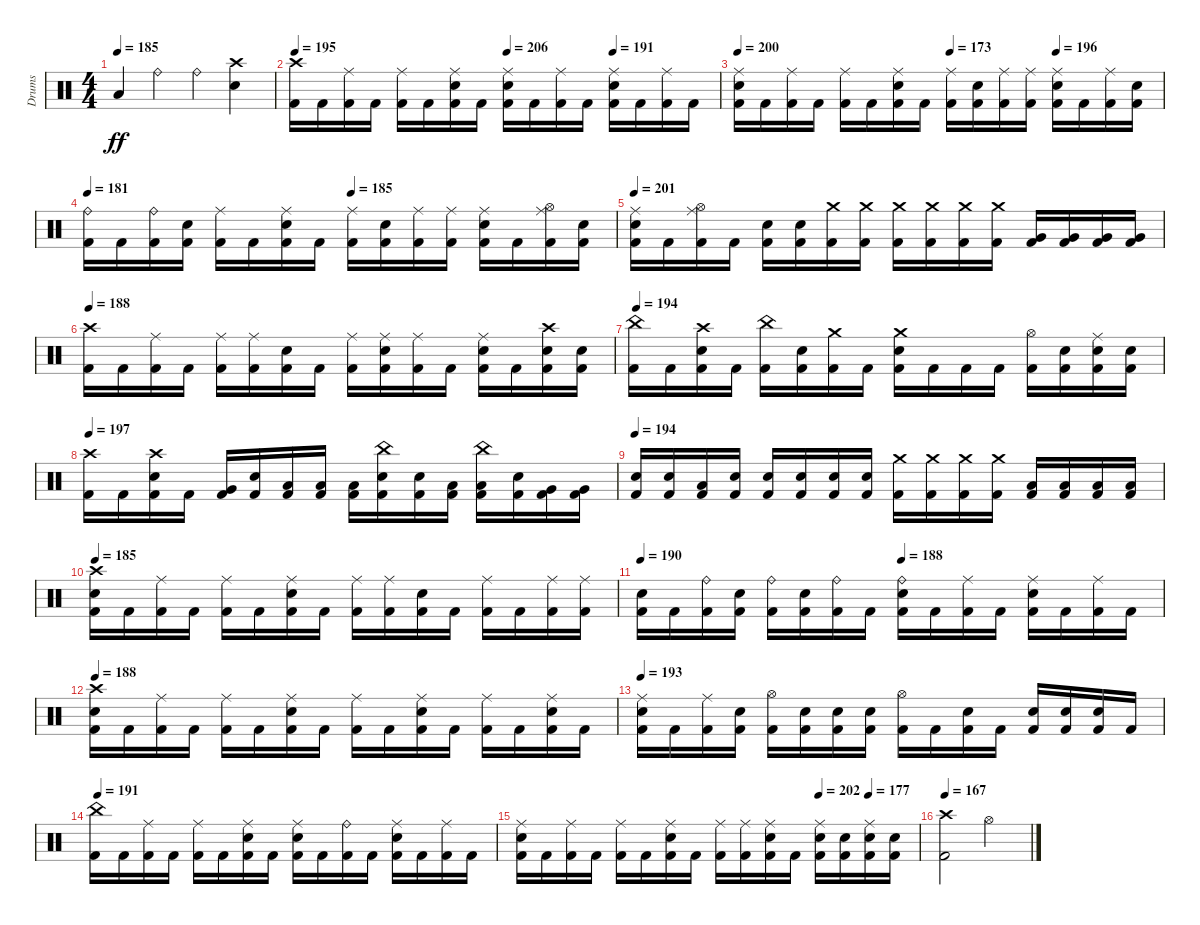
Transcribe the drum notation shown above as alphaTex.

\track ("Drums" "Drums") {instrument percussion}
\staff {score}
\articulation defaults
\ts (4 4)
\tempo 185
\clef neutral
\ks c "Low Floor Tom (hit)".4{dy ff} "Ride (bell)".4 "Ride (bell)".4
("Snare (hit) 2" "Crash high (hit)").4 |
\tempo 195
\tempo (206 0.5)
\tempo (191 0.75)
("Kick (hit) 2" "Crash high (hit)").16 "Kick (hit) 2".16 ("Kick (hit) 2" "Ride (middle)").16 "Kick (hit) 2".16 ("Kick (hit) 2" "Ride (middle)").16 "Kick (hit) 2".16 ("Kick (hit) 2" "Snare (hit) 2" "Ride (middle)").16 "Kick (hit) 2".16 ("Kick (hit) 2" "Snare (hit) 2" "Ride (middle)").16 "Kick (hit) 2".16 ("Kick (hit) 2" "Ride (middle)").16 "Kick (hit) 2".16 ("Kick (hit) 2" "Snare (hit) 2" "Ride (middle)").16 "Kick (hit) 2".16 ("Kick (hit) 2" "Ride (middle)").16 "Kick (hit) 2".16 |
\tempo 200
\tempo (173 0.5)
\tempo (196 0.75)
("Kick (hit) 2" "Snare (hit) 2" "Ride (middle)").16 "Kick (hit) 2".16 ("Kick (hit) 2" "Ride (middle)").16 "Kick (hit) 2".16 ("Kick (hit) 2" "Ride (middle)").16 "Kick (hit) 2".16 ("Kick (hit) 2" "Snare (hit) 2" "Ride (middle)").16 "Kick (hit) 2".16 ("Kick (hit) 2" "Ride (middle)").16 ("Kick (hit) 2" "Snare (hit) 2").16 ("Kick (hit) 2" "Ride (middle)").16 ("Kick (hit) 2" "Ride (middle)").16 ("Kick (hit) 2" "Snare (hit) 2" "Ride (middle)").16 "Kick (hit) 2".16 ("Kick (hit) 2" "Ride (middle)").16 ("Kick (hit) 2" "Snare (hit) 2").16 |
\tempo 181
\tempo (185 0.5)
("Kick (hit) 2" "Ride (bell)").16 "Kick (hit) 2".16 ("Kick (hit) 2" "Ride (bell)").16 ("Kick (hit) 2" "Snare (hit) 2").16 ("Kick (hit) 2" "Ride (middle)").16 "Kick (hit) 2".16 ("Kick (hit) 2" "Snare (hit) 2" "Ride (middle)").16 "Kick (hit) 2".16 ("Kick (hit) 2" "Ride (middle)").16 ("Kick (hit) 2" "Snare (hit) 2").16 ("Kick (hit) 2" "Ride (middle)").16 ("Kick (hit) 2" "Ride (middle)").16 ("Kick (hit) 2" "Snare (hit) 2" "Ride (middle)").16 "Kick (hit) 2".16 ("Kick (hit) 2" "Hi-Hat (open)" "Ride (middle)").16 ("Kick (hit) 2" "Snare (hit) 2").16 |
\tempo 201
("Kick (hit) 2" "Snare (hit) 2" "Ride (middle)").16 "Kick (hit) 2".16 ("Kick (hit) 2" "Hi-Hat (open)" "Ride (middle)").16 "Kick (hit) 2".16 ("Kick (hit) 2" "Snare (hit) 2").16 ("Kick (hit) 2" "Snare (hit) 2").16 ("Kick (hit) 2" "Crash medium (hit)").16 ("Kick (hit) 2" "Crash medium (hit)").16 ("Kick (hit) 2" "Crash medium (hit)").16 ("Kick (hit) 2" "Crash medium (hit)").16 ("Kick (hit) 2" "Crash medium (hit)").16 ("Kick (hit) 2" "Crash medium (hit)").16 ("Kick (hit) 2" "Very Low Tom (hit)").16 ("Kick (hit) 2" "Very Low Tom (hit)").16 ("Kick (hit) 2" "Very Low Tom (hit)").16 ("Kick (hit) 2" "Very Low Tom (hit)").16 |
\tempo 188
("Kick (hit) 2" "Crash high (hit)").16 "Kick (hit) 2".16 ("Kick (hit) 2" "Ride (middle)").16 "Kick (hit) 2".16 ("Kick (hit) 2" "Ride (middle)").16 ("Kick (hit) 2" "Ride (middle)").16 ("Kick (hit) 2" "Snare (hit) 2").16 "Kick (hit) 2".16 ("Kick (hit) 2" "Ride (middle)").16 ("Kick (hit) 2" "Snare (hit) 2" "Ride (middle)").16 ("Kick (hit) 2" "Ride (middle)").16 "Kick (hit) 2".16 ("Kick (hit) 2" "Snare (hit) 2" "Ride (middle)").16 "Kick (hit) 2".16 ("Kick (hit) 2" "Snare (hit) 2" "Crash high (hit)").16 ("Kick (hit) 2" "Snare (hit) 2").16 |
\tempo 194
("Kick (hit) 2" "China (hit)").16 "Kick (hit) 2".16 ("Kick (hit) 2" "Snare (hit) 2" "Crash high (hit)").16 "Kick (hit) 2".16 ("Kick (hit) 2" "China (hit)").16 ("Kick (hit) 2" "Snare (hit) 2").16 ("Kick (hit) 2" "Crash medium (hit)").16 "Kick (hit) 2".16 ("Kick (hit) 2" "Snare (hit) 2" "Crash medium (hit)").16 "Kick (hit) 2".16 "Kick (hit) 2".16 "Kick (hit) 2".16 ("Kick (hit) 2" "Hi-Hat (open)").16 ("Kick (hit) 2" "Snare (hit) 2").16 ("Kick (hit) 2" "Snare (hit) 2" "Ride (middle)").16 ("Kick (hit) 2" "Snare (hit) 2").16 |
\tempo 197
("Kick (hit) 2" "Crash high (hit)").16 "Kick (hit) 2".16 ("Kick (hit) 2" "Snare (hit) 2" "Crash high (hit)").16 "Kick (hit) 2".16 ("Kick (hit) 2" "Very Low Tom (hit)").16 ("Kick (hit) 2" "Snare (hit) 2").16 ("Kick (hit) 2" "Low Floor Tom (hit)").16 ("Kick (hit) 2" "Low Floor Tom (hit)").16 ("Kick (hit) 2" "Low Floor Tom (hit)").16 ("Kick (hit) 2" "Snare (hit) 2" "China (hit)").16 ("Kick (hit) 2" "Snare (hit) 2").16 ("Kick (hit) 2" "Low Floor Tom (hit)").16 ("Kick (hit) 2" "Low Floor Tom (hit)" "China (hit)").16 ("Kick (hit) 2" "Snare (hit) 2").16 ("Kick (hit) 2" "Very Low Tom (hit)").16 ("Kick (hit) 2" "Very Low Tom (hit)").16 |
\tempo 194
("Kick (hit) 2" "Snare (hit) 2").16 ("Kick (hit) 2" "Snare (hit) 2").16 ("Kick (hit) 2" "Low Floor Tom (hit)").16 ("Kick (hit) 2" "Snare (hit) 2").16 ("Kick (hit) 2" "Snare (hit) 2").16 ("Kick (hit) 2" "Snare (hit) 2").16 ("Kick (hit) 2" "Snare (hit) 2").16 ("Kick (hit) 2" "Snare (hit) 2").16 ("Kick (hit) 2" "Crash medium (hit)").16 ("Kick (hit) 2" "Crash medium (hit)").16 ("Kick (hit) 2" "Crash medium (hit)").16 ("Kick (hit) 2" "Crash medium (hit)").16 ("Kick (hit) 2" "Low Floor Tom (hit)").16 ("Kick (hit) 2" "Low Floor Tom (hit)").16 ("Kick (hit) 2" "Low Floor Tom (hit)").16 ("Kick (hit) 2" "Low Floor Tom (hit)").16 |
\tempo 185
("Kick (hit) 2" "Snare (hit) 2" "Crash high (hit)").16 "Kick (hit) 2".16 ("Kick (hit) 2" "Ride (middle)").16 "Kick (hit) 2".16 ("Kick (hit) 2" "Ride (middle)").16 "Kick (hit) 2".16 ("Kick (hit) 2" "Snare (hit) 2" "Ride (middle)").16 "Kick (hit) 2".16 ("Kick (hit) 2" "Ride (middle)").16 ("Kick (hit) 2" "Ride (middle)").16 ("Kick (hit) 2" "Snare (hit) 2").16 "Kick (hit) 2".16 ("Kick (hit) 2" "Ride (middle)").16 "Kick (hit) 2".16 ("Kick (hit) 2" "Ride (middle)").16 ("Kick (hit) 2" "Ride (middle)").16 |
\tempo 190
\tempo (188 0.5)
("Kick (hit) 2" "Snare (hit) 2").16 "Kick (hit) 2".16 ("Kick (hit) 2" "Ride (bell)").16 ("Kick (hit) 2" "Snare (hit) 2").16 ("Kick (hit) 2" "Ride (bell)").16 ("Kick (hit) 2" "Snare (hit) 2").16 ("Kick (hit) 2" "Ride (bell)").16 "Kick (hit) 2".16 ("Kick (hit) 2" "Snare (hit) 2" "Ride (bell)").16 "Kick (hit) 2".16 ("Kick (hit) 2" "Ride (middle)").16 "Kick (hit) 2".16 ("Kick (hit) 2" "Snare (hit) 2" "Ride (middle)").16 "Kick (hit) 2".16 ("Kick (hit) 2" "Ride (middle)").16 "Kick (hit) 2".16 |
\tempo 188
("Kick (hit) 2" "Snare (hit) 2" "Crash high (hit)").16 "Kick (hit) 2".16 ("Kick (hit) 2" "Ride (middle)").16 "Kick (hit) 2".16 ("Kick (hit) 2" "Ride (middle)").16 "Kick (hit) 2".16 ("Kick (hit) 2" "Snare (hit) 2" "Ride (middle)").16 "Kick (hit) 2".16 ("Kick (hit) 2" "Ride (middle)").16 "Kick (hit) 2".16 ("Kick (hit) 2" "Snare (hit) 2" "Ride (middle)").16 "Kick (hit) 2".16 ("Kick (hit) 2" "Ride (middle)").16 "Kick (hit) 2".16 ("Kick (hit) 2" "Snare (hit) 2" "Ride (middle)").16 "Kick (hit) 2".16 |
\tempo 193
("Kick (hit) 2" "Snare (hit) 2" "Ride (middle)").16 "Kick (hit) 2".16 ("Kick (hit) 2" "Ride (middle)").16 ("Kick (hit) 2" "Snare (hit) 2").16 ("Kick (hit) 2" "Hi-Hat (open)").16 ("Kick (hit) 2" "Snare (hit) 2").16 ("Kick (hit) 2" "Snare (hit) 2").16 ("Kick (hit) 2" "Snare (hit) 2").16 ("Kick (hit) 2" "Hi-Hat (open)").16 "Kick (hit) 2".16 ("Kick (hit) 2" "Snare (hit) 2").16 "Kick (hit) 2".16 ("Kick (hit) 2" "Snare (hit) 2").16 ("Kick (hit) 2" "Snare (hit) 2").16 ("Kick (hit) 2" "Snare (hit) 2").16 "Kick (hit) 2".16 |
\tempo 191
("Kick (hit) 2" "China (hit)").16 "Kick (hit) 2".16 ("Kick (hit) 2" "Ride (middle)").16 "Kick (hit) 2".16 ("Kick (hit) 2" "Ride (middle)").16 "Kick (hit) 2".16 ("Kick (hit) 2" "Snare (hit) 2" "Ride (middle)").16 "Kick (hit) 2".16 ("Kick (hit) 2" "Snare (hit) 2" "Ride (middle)").16 "Kick (hit) 2".16 ("Kick (hit) 2" "Ride (bell)").16 "Kick (hit) 2".16 ("Kick (hit) 2" "Snare (hit) 2" "Ride (middle)").16 "Kick (hit) 2".16 ("Kick (hit) 2" "Ride (middle)").16 "Kick (hit) 2".16 |
\tempo (202 0.75)
\tempo (177 0.875)
("Kick (hit) 2" "Snare (hit) 2" "Ride (middle)").16 "Kick (hit) 2".16 ("Kick (hit) 2" "Ride (middle)").16 "Kick (hit) 2".16 ("Kick (hit) 2" "Ride (middle)").16 "Kick (hit) 2".16 ("Kick (hit) 2" "Snare (hit) 2" "Ride (middle)").16 "Kick (hit) 2".16 ("Kick (hit) 2" "Ride (middle)").16 ("Kick (hit) 2" "Ride (middle)").16 ("Kick (hit) 2" "Snare (hit) 2" "Ride (middle)").16 "Kick (hit) 2".16 ("Kick (hit) 2" "Snare (hit) 2" "Ride (middle)").16 ("Kick (hit) 2" "Snare (hit) 2").16 ("Kick (hit) 2" "Snare (hit) 2" "Ride (middle)").16 ("Kick (hit) 2" "Snare (hit) 2").16 |
\tempo 167
("Kick (hit) 2" "Crash high (hit)").2 "Hi-Hat (open)".2
